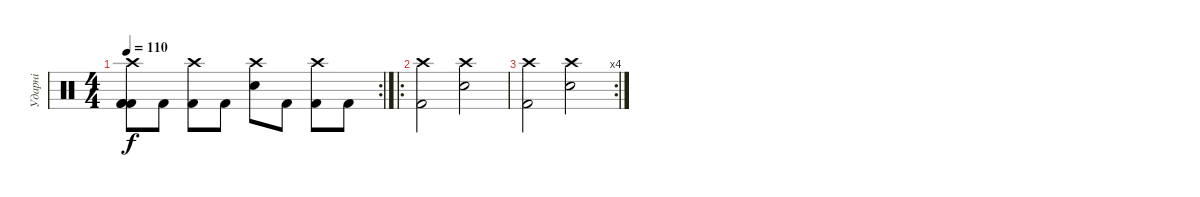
\track ("Ударні" "Ударні") {instrument percussion}
\staff {score}
\articulation defaults
\rc 2
\ts (4 4)
\tempo 110
\clef neutral
\ks c
("Crash high (hit)" "Kick (hit) 2" "Kick (hit) 2" "Kick (hit) 2").8{dy f} "Kick (hit) 2".8 ("Crash high (hit)" "Kick (hit) 2").8 "Kick (hit) 2".8 ("Crash high (hit)" "Electric Snare (hit)").8 "Kick (hit) 2".8 ("Crash high (hit)" "Kick (hit) 2").8 "Kick (hit) 2".8 |
\ro
("Crash high (hit)" "Kick (hit) 2").2 ("Crash high (hit)" "Electric Snare (hit)").2 |
\rc 4
("Crash high (hit)" "Kick (hit) 2").2 ("Crash high (hit)" "Electric Snare (hit)").2
